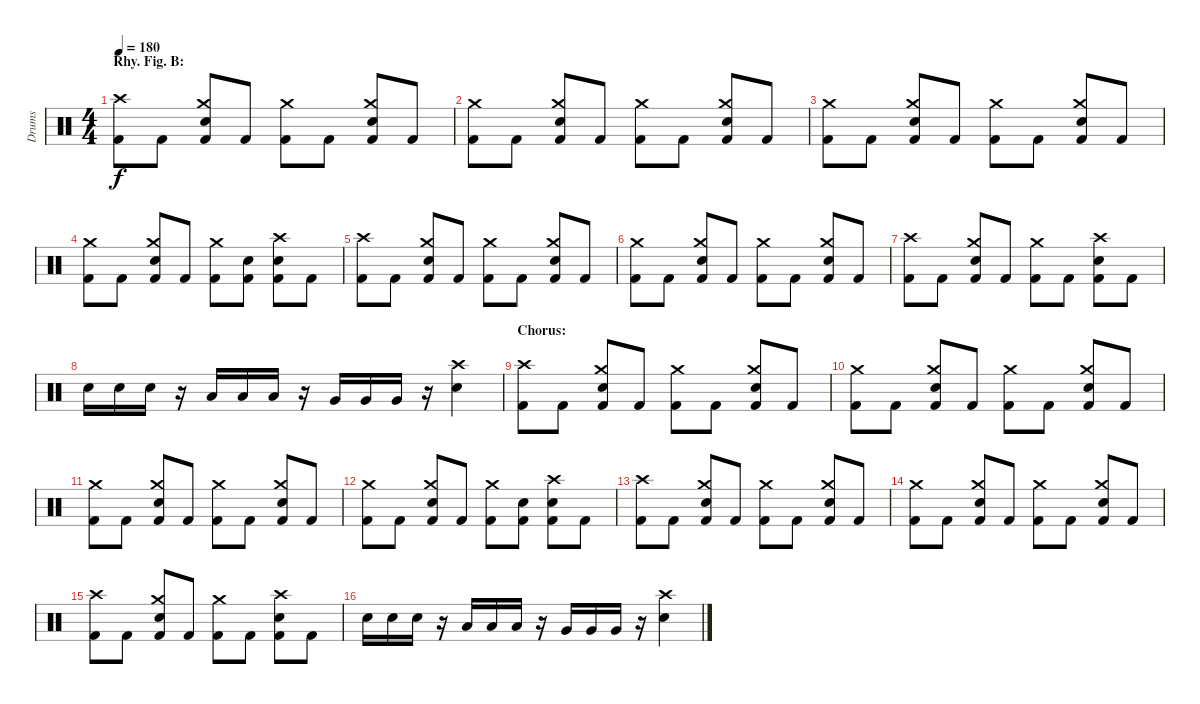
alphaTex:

\track ("Drums" "Drums") {instrument percussion}
\staff {score}
\articulation defaults
\ts (4 4)
\section ("" "Rhy. Fig. B:")
\tempo 180
\clef neutral
\ks c
("Crash high (hit)" "Kick (hit) 2").8{dy f} "Kick (hit) 2".8 ("Crash medium (hit)" "Electric Snare (hit)" "Kick (hit) 2").8 "Kick (hit) 2".8 ("Crash medium (hit)" "Kick (hit) 2").8 "Kick (hit) 2".8 ("Crash medium (hit)" "Electric Snare (hit)" "Kick (hit) 2").8 "Kick (hit) 2".8 |
("Crash medium (hit)" "Kick (hit) 2").8 "Kick (hit) 2".8 ("Crash medium (hit)" "Electric Snare (hit)" "Kick (hit) 2").8 "Kick (hit) 2".8 ("Crash medium (hit)" "Kick (hit) 2").8 "Kick (hit) 2".8 ("Crash medium (hit)" "Electric Snare (hit)" "Kick (hit) 2").8 "Kick (hit) 2".8 |
("Crash medium (hit)" "Kick (hit) 2").8 "Kick (hit) 2".8 ("Crash medium (hit)" "Electric Snare (hit)" "Kick (hit) 2").8 "Kick (hit) 2".8 ("Crash medium (hit)" "Kick (hit) 2").8 "Kick (hit) 2".8 ("Crash medium (hit)" "Electric Snare (hit)" "Kick (hit) 2").8 "Kick (hit) 2".8 |
("Crash medium (hit)" "Kick (hit) 2").8 "Kick (hit) 2".8 ("Crash medium (hit)" "Electric Snare (hit)" "Kick (hit) 2").8 "Kick (hit) 2".8 ("Crash medium (hit)" "Kick (hit) 2").8 ("Electric Snare (hit)" "Kick (hit) 2").8 ("Crash high (hit)" "Electric Snare (hit)" "Kick (hit) 2").8 "Kick (hit) 2".8 |
("Crash high (hit)" "Kick (hit) 2").8 "Kick (hit) 2".8 ("Crash medium (hit)" "Electric Snare (hit)" "Kick (hit) 2").8 "Kick (hit) 2".8 ("Crash medium (hit)" "Kick (hit) 2").8 "Kick (hit) 2".8 ("Crash medium (hit)" "Electric Snare (hit)" "Kick (hit) 2").8 "Kick (hit) 2".8 |
("Crash medium (hit)" "Kick (hit) 2").8 "Kick (hit) 2".8 ("Crash medium (hit)" "Electric Snare (hit)" "Kick (hit) 2").8 "Kick (hit) 2".8 ("Crash medium (hit)" "Kick (hit) 2").8 "Kick (hit) 2".8 ("Crash medium (hit)" "Electric Snare (hit)" "Kick (hit) 2").8 "Kick (hit) 2".8 |
("Crash high (hit)" "Kick (hit) 2").8 "Kick (hit) 2".8 ("Crash medium (hit)" "Electric Snare (hit)" "Kick (hit) 2").8 "Kick (hit) 2".8 ("Crash medium (hit)" "Kick (hit) 2").8 "Kick (hit) 2".8 ("Crash high (hit)" "Electric Snare (hit)" "Kick (hit) 2").8 "Kick (hit) 2".8 |
"Electric Snare (hit)".16 "Electric Snare (hit)".16 "Electric Snare (hit)".16 r.16 "Low Tom (hit)".16 "Low Tom (hit)".16 "Low Tom (hit)".16 r.16 "Very Low Tom (hit)".16 "Very Low Tom (hit)".16 "Very Low Tom (hit)".16 r.16 ("Crash high (hit)" "Electric Snare (hit)").4 |
\section ("" "Chorus:")
("Crash high (hit)" "Kick (hit) 2").8 "Kick (hit) 2".8 ("Crash medium (hit)" "Electric Snare (hit)" "Kick (hit) 2").8 "Kick (hit) 2".8 ("Crash medium (hit)" "Kick (hit) 2").8 "Kick (hit) 2".8 ("Crash medium (hit)" "Electric Snare (hit)" "Kick (hit) 2").8 "Kick (hit) 2".8 |
("Crash medium (hit)" "Kick (hit) 2").8 "Kick (hit) 2".8 ("Crash medium (hit)" "Electric Snare (hit)" "Kick (hit) 2").8 "Kick (hit) 2".8 ("Crash medium (hit)" "Kick (hit) 2").8 "Kick (hit) 2".8 ("Crash medium (hit)" "Electric Snare (hit)" "Kick (hit) 2").8 "Kick (hit) 2".8 |
("Crash medium (hit)" "Kick (hit) 2").8 "Kick (hit) 2".8 ("Crash medium (hit)" "Electric Snare (hit)" "Kick (hit) 2").8 "Kick (hit) 2".8 ("Crash medium (hit)" "Kick (hit) 2").8 "Kick (hit) 2".8 ("Crash medium (hit)" "Electric Snare (hit)" "Kick (hit) 2").8 "Kick (hit) 2".8 |
("Crash medium (hit)" "Kick (hit) 2").8 "Kick (hit) 2".8 ("Crash medium (hit)" "Electric Snare (hit)" "Kick (hit) 2").8 "Kick (hit) 2".8 ("Crash medium (hit)" "Kick (hit) 2").8 ("Electric Snare (hit)" "Kick (hit) 2").8 ("Crash high (hit)" "Electric Snare (hit)" "Kick (hit) 2").8 "Kick (hit) 2".8 |
("Crash high (hit)" "Kick (hit) 2").8 "Kick (hit) 2".8 ("Crash medium (hit)" "Electric Snare (hit)" "Kick (hit) 2").8 "Kick (hit) 2".8 ("Crash medium (hit)" "Kick (hit) 2").8 "Kick (hit) 2".8 ("Crash medium (hit)" "Electric Snare (hit)" "Kick (hit) 2").8 "Kick (hit) 2".8 |
("Crash medium (hit)" "Kick (hit) 2").8 "Kick (hit) 2".8 ("Crash medium (hit)" "Electric Snare (hit)" "Kick (hit) 2").8 "Kick (hit) 2".8 ("Crash medium (hit)" "Kick (hit) 2").8 "Kick (hit) 2".8 ("Crash medium (hit)" "Electric Snare (hit)" "Kick (hit) 2").8 "Kick (hit) 2".8 |
("Crash high (hit)" "Kick (hit) 2").8 "Kick (hit) 2".8 ("Crash medium (hit)" "Electric Snare (hit)" "Kick (hit) 2").8 "Kick (hit) 2".8 ("Crash medium (hit)" "Kick (hit) 2").8 "Kick (hit) 2".8 ("Crash high (hit)" "Electric Snare (hit)" "Kick (hit) 2").8 "Kick (hit) 2".8 |
"Electric Snare (hit)".16 "Electric Snare (hit)".16 "Electric Snare (hit)".16 r.16 "Low Tom (hit)".16 "Low Tom (hit)".16 "Low Tom (hit)".16 r.16 "Very Low Tom (hit)".16 "Very Low Tom (hit)".16 "Very Low Tom (hit)".16 r.16 ("Crash high (hit)" "Electric Snare (hit)").4
